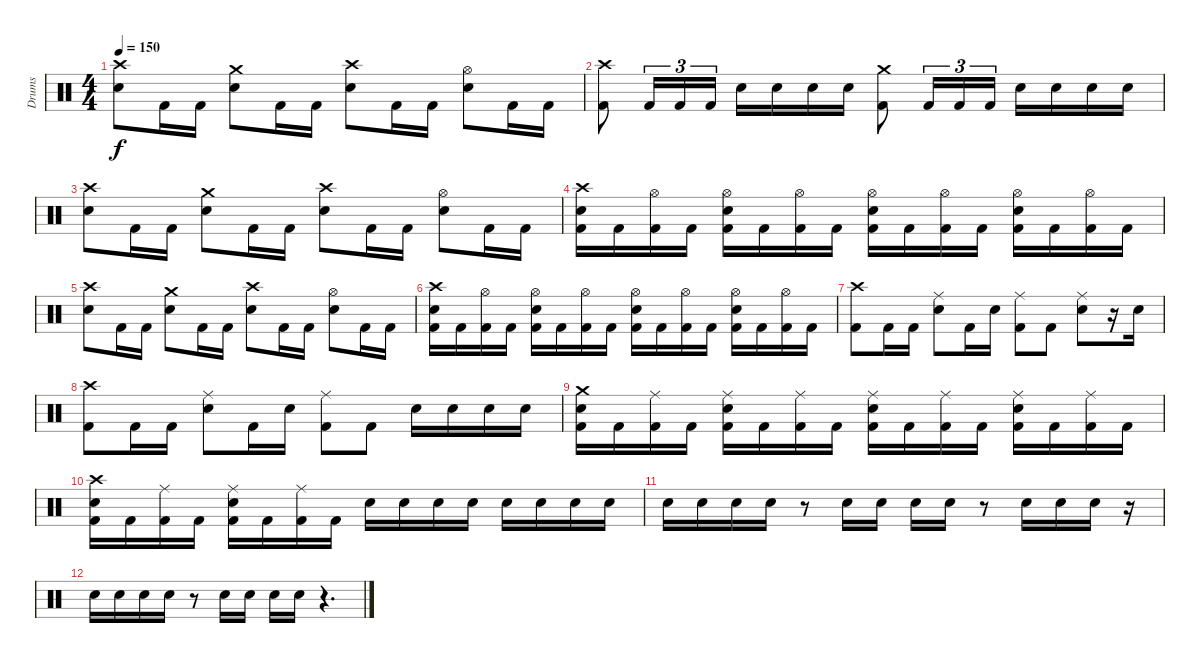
\track ("Drums" "Drums") {instrument percussion}
\staff {score}
\articulation defaults
\ts (4 4)
\tempo 150
\clef neutral
\ks c
("Crash high (hit)" "Snare (hit) 2").8{dy f} "Kick (hit) 2".16 "Kick (hit) 2".16 ("Crash medium (hit)" "Snare (hit) 2").8 "Kick (hit) 2".16 "Kick (hit) 2".16 ("Crash high (hit)" "Snare (hit) 2").8 "Kick (hit) 2".16 "Kick (hit) 2".16 ("Hi-Hat (open)" "Snare (hit) 2").8 "Kick (hit) 2".16 "Kick (hit) 2".16 |
("Crash high (hit)" "Kick (hit) 2").8 "Kick (hit) 2".16{tu (3 2)} "Kick (hit) 2".16{tu (3 2)} "Kick (hit) 2".16{tu (3 2)} "Snare (hit) 2".16 "Snare (hit) 2".16 "Snare (hit) 2".16 "Snare (hit) 2".16 ("Crash medium (hit)" "Kick (hit) 2").8 "Kick (hit) 2".16{tu (3 2)} "Kick (hit) 2".16{tu (3 2)} "Kick (hit) 2".16{tu (3 2)} "Snare (hit) 2".16 "Snare (hit) 2".16 "Snare (hit) 2".16 "Snare (hit) 2".16 |
("Crash high (hit)" "Snare (hit) 2").8 "Kick (hit) 2".16 "Kick (hit) 2".16 ("Crash medium (hit)" "Snare (hit) 2").8 "Kick (hit) 2".16 "Kick (hit) 2".16 ("Crash high (hit)" "Snare (hit) 2").8 "Kick (hit) 2".16 "Kick (hit) 2".16 ("Hi-Hat (open)" "Snare (hit) 2").8 "Kick (hit) 2".16 "Kick (hit) 2".16 |
("Crash high (hit)" "Snare (hit) 2" "Kick (hit) 2").16 "Kick (hit) 2".16 ("Hi-Hat (open)" "Kick (hit) 2").16 "Kick (hit) 2".16 ("Hi-Hat (open)" "Snare (hit) 2" "Kick (hit) 2").16 "Kick (hit) 2".16 ("Hi-Hat (open)" "Kick (hit) 2").16 "Kick (hit) 2".16 ("Hi-Hat (open)" "Snare (hit) 2" "Kick (hit) 2").16 "Kick (hit) 2".16 ("Hi-Hat (open)" "Kick (hit) 2").16 "Kick (hit) 2".16 ("Hi-Hat (open)" "Snare (hit) 2" "Kick (hit) 2").16 "Kick (hit) 2".16 ("Hi-Hat (open)" "Kick (hit) 2").16 "Kick (hit) 2".16 |
("Crash high (hit)" "Snare (hit) 2").8 "Kick (hit) 2".16 "Kick (hit) 2".16 ("Crash medium (hit)" "Snare (hit) 2").8 "Kick (hit) 2".16 "Kick (hit) 2".16 ("Crash high (hit)" "Snare (hit) 2").8 "Kick (hit) 2".16 "Kick (hit) 2".16 ("Hi-Hat (open)" "Snare (hit) 2").8 "Kick (hit) 2".16 "Kick (hit) 2".16 |
("Crash high (hit)" "Snare (hit) 2" "Kick (hit) 2").16 "Kick (hit) 2".16 ("Hi-Hat (open)" "Kick (hit) 2").16 "Kick (hit) 2".16 ("Hi-Hat (open)" "Snare (hit) 2" "Kick (hit) 2").16 "Kick (hit) 2".16 ("Hi-Hat (open)" "Kick (hit) 2").16 "Kick (hit) 2".16 ("Hi-Hat (open)" "Snare (hit) 2" "Kick (hit) 2").16 "Kick (hit) 2".16 ("Hi-Hat (open)" "Kick (hit) 2").16 "Kick (hit) 2".16 ("Hi-Hat (open)" "Snare (hit) 2" "Kick (hit) 2").16 "Kick (hit) 2".16 ("Hi-Hat (open)" "Kick (hit) 2").16 "Kick (hit) 2".16 |
("Crash high (hit)" "Kick (hit) 2").8 "Kick (hit) 2".16 "Kick (hit) 2".16 ("Ride (middle)" "Snare (hit) 2").8 "Kick (hit) 2".16 "Snare (hit) 2".16 ("Ride (middle)" "Kick (hit) 2").8 "Kick (hit) 2".8 ("Ride (middle)" "Snare (hit) 2").8 r.16 "Snare (hit) 2".16 |
("Crash high (hit)" "Kick (hit) 2").8 "Kick (hit) 2".16 "Kick (hit) 2".16 ("Ride (middle)" "Snare (hit) 2").8 "Kick (hit) 2".16 "Snare (hit) 2".16 ("Ride (middle)" "Kick (hit) 2").8 "Kick (hit) 2".8 "Snare (hit) 2".16 "Snare (hit) 2".16 "Snare (hit) 2".16 "Snare (hit) 2".16 |
("Crash medium (hit)" "Snare (hit) 2" "Kick (hit) 2").16 "Kick (hit) 2".16 ("Ride (middle)" "Kick (hit) 2").16 "Kick (hit) 2".16 ("Ride (middle)" "Snare (hit) 2" "Kick (hit) 2").16 "Kick (hit) 2".16 ("Ride (middle)" "Kick (hit) 2").16 "Kick (hit) 2".16 ("Ride (middle)" "Snare (hit) 2" "Kick (hit) 2").16 "Kick (hit) 2".16 ("Ride (middle)" "Kick (hit) 2").16 "Kick (hit) 2".16 ("Ride (middle)" "Snare (hit) 2" "Kick (hit) 2").16 "Kick (hit) 2".16 ("Ride (middle)" "Kick (hit) 2").16 "Kick (hit) 2".16 |
("Crash high (hit)" "Snare (hit) 2" "Kick (hit) 2").16 "Kick (hit) 2".16 ("Ride (middle)" "Kick (hit) 2").16 "Kick (hit) 2".16 ("Ride (middle)" "Snare (hit) 2" "Kick (hit) 2").16 "Kick (hit) 2".16 ("Ride (middle)" "Kick (hit) 2").16 "Kick (hit) 2".16 "Snare (hit) 2".16 "Snare (hit) 2".16 "Snare (hit) 2".16 "Snare (hit) 2".16 "Snare (hit) 2".16 "Snare (hit) 2".16 "Snare (hit) 2".16 "Snare (hit) 2".16 |
"Snare (hit) 2".16 "Snare (hit) 2".16 "Snare (hit) 2".16 "Snare (hit) 2".16 r.8 "Snare (hit) 2".16 "Snare (hit) 2".16 "Snare (hit) 2".16 "Snare (hit) 2".16 r.8 "Snare (hit) 2".16 "Snare (hit) 2".16 "Snare (hit) 2".16 r.16 |
"Snare (hit) 2".16 "Snare (hit) 2".16 "Snare (hit) 2".16 "Snare (hit) 2".16 r.8 "Snare (hit) 2".16 "Snare (hit) 2".16 "Snare (hit) 2".16 "Snare (hit) 2".16 r.4{d}
